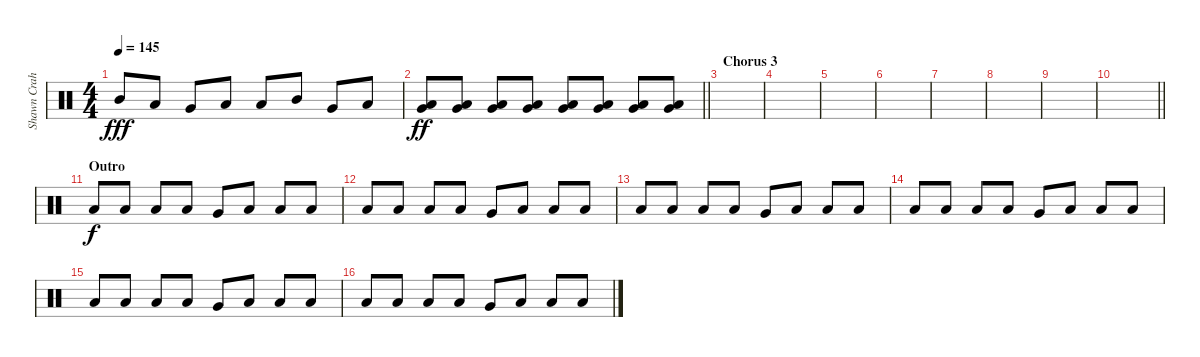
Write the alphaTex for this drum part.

\track ("Shawn Crahan" "Shawn Crah") {instrument percussion}
\staff {score}
\articulation defaults
\ts (4 4)
\tempo 145
\clef neutral
\ks c "Mid Tom (hit)".8{dy fff} "Low Tom (hit)".8 "Very Low Tom (hit)".8 "Low Floor Tom (hit)".8 "Low Tom (hit)".8 "Mid Tom (hit)".8 "Very Low Tom (hit)".8 "Low Floor Tom (hit)".8
|
\barLineRight lightlight
("Very Low Tom (hit)" "Low Floor Tom (hit)").8{dy ff} ("Very Low Tom (hit)" "Low Floor Tom (hit)").8 ("Very Low Tom (hit)" "Low Floor Tom (hit)").8 ("Very Low Tom (hit)" "Low Floor Tom (hit)").8 ("Very Low Tom (hit)" "Low Floor Tom (hit)").8 ("Very Low Tom (hit)" "Low Floor Tom (hit)").8 ("Very Low Tom (hit)" "Low Floor Tom (hit)").8 ("Very Low Tom (hit)" "Low Floor Tom (hit)").8 |
\section ("" "Chorus 3")
|
|
|
|
|
|
|
\barLineRight lightlight
|
\section ("" "Outro")
"Low Floor Tom (hit)".8{dy f} "Low Floor Tom (hit)".8 "Low Floor Tom (hit)".8 "Low Floor Tom (hit)".8 "Very Low Tom (hit)".8 "Low Floor Tom (hit)".8 "Low Floor Tom (hit)".8 "Low Floor Tom (hit)".8 |
"Low Floor Tom (hit)".8 "Low Floor Tom (hit)".8 "Low Floor Tom (hit)".8 "Low Floor Tom (hit)".8 "Very Low Tom (hit)".8 "Low Floor Tom (hit)".8 "Low Floor Tom (hit)".8 "Low Floor Tom (hit)".8 |
"Low Floor Tom (hit)".8 "Low Floor Tom (hit)".8 "Low Floor Tom (hit)".8 "Low Floor Tom (hit)".8 "Very Low Tom (hit)".8 "Low Floor Tom (hit)".8 "Low Floor Tom (hit)".8 "Low Floor Tom (hit)".8 |
"Low Floor Tom (hit)".8 "Low Floor Tom (hit)".8 "Low Floor Tom (hit)".8 "Low Floor Tom (hit)".8 "Very Low Tom (hit)".8 "Low Floor Tom (hit)".8 "Low Floor Tom (hit)".8 "Low Floor Tom (hit)".8 |
"Low Floor Tom (hit)".8 "Low Floor Tom (hit)".8 "Low Floor Tom (hit)".8 "Low Floor Tom (hit)".8 "Very Low Tom (hit)".8 "Low Floor Tom (hit)".8 "Low Floor Tom (hit)".8 "Low Floor Tom (hit)".8 |
"Low Floor Tom (hit)".8 "Low Floor Tom (hit)".8 "Low Floor Tom (hit)".8 "Low Floor Tom (hit)".8 "Very Low Tom (hit)".8 "Low Floor Tom (hit)".8 "Low Floor Tom (hit)".8 "Low Floor Tom (hit)".8
